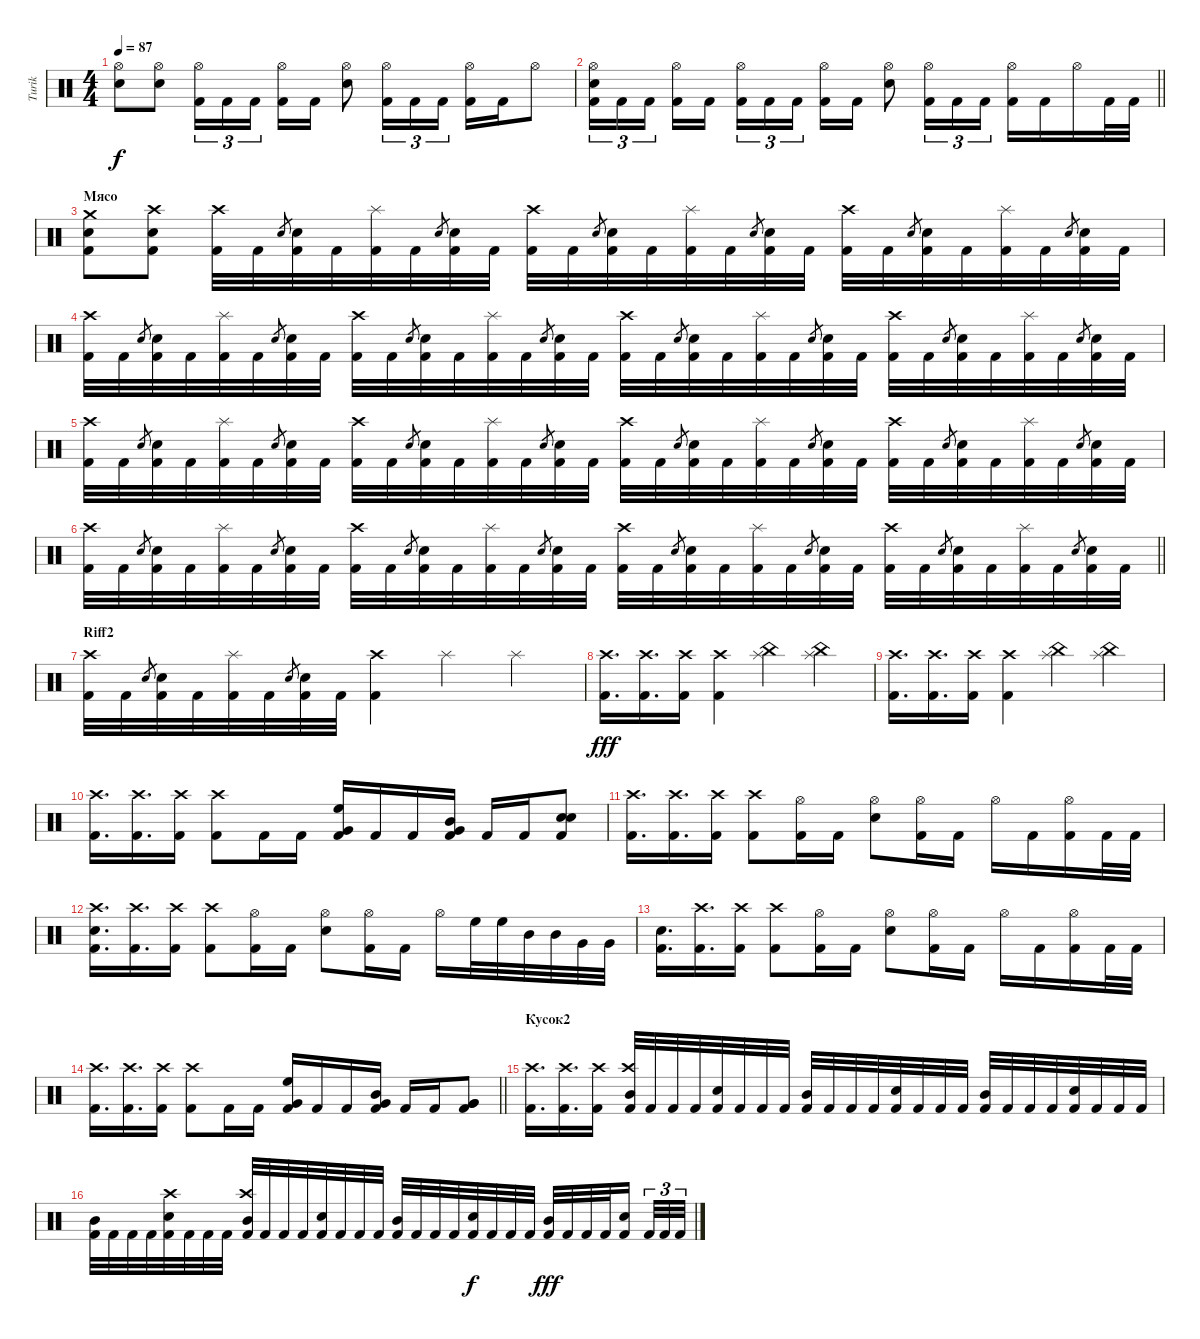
\track ("Turik" "Turik") {instrument percussion}
\staff {score}
\articulation defaults
\ts (4 4)
\tempo 87
\clef neutral
\ks c
("Hi-Hat (open)" "Snare (hit) 2").8{dy f} ("Hi-Hat (open)" "Snare (hit) 2").8 ("Hi-Hat (open)" "Kick (hit) 2").16{tu (3 2)} "Kick (hit) 2".16{tu (3 2)} "Kick (hit) 2".16{tu (3 2) beam splitsecondary} ("Hi-Hat (open)" "Kick (hit) 2").16 "Kick (hit) 2".16 ("Hi-Hat (open)" "Snare (hit) 2").8 ("Hi-Hat (open)" "Kick (hit) 2").16{tu (3 2)} "Kick (hit) 2".16{tu (3 2)} "Kick (hit) 2".16{tu (3 2)} ("Hi-Hat (open)" "Kick (hit) 2").16 "Kick (hit) 2".16 "Hi-Hat (open)".8 |
\barLineRight lightlight
("Hi-Hat (open)" "Snare (hit) 2" "Kick (hit) 2").16{tu (3 2)} "Kick (hit) 2".16{tu (3 2)} "Kick (hit) 2".16{tu (3 2) beam splitsecondary} ("Hi-Hat (open)" "Kick (hit) 2").16 "Kick (hit) 2".16 ("Hi-Hat (open)" "Kick (hit) 2").16{tu (3 2)} "Kick (hit) 2".16{tu (3 2)} "Kick (hit) 2".16{tu (3 2) beam splitsecondary} ("Hi-Hat (open)" "Kick (hit) 2").16 "Kick (hit) 2".16 ("Hi-Hat (open)" "Snare (hit) 2").8 ("Hi-Hat (open)" "Kick (hit) 2").16{tu (3 2)} "Kick (hit) 2".16{tu (3 2)} "Kick (hit) 2".16{tu (3 2)} ("Hi-Hat (open)" "Kick (hit) 2").16 "Kick (hit) 2".16 "Hi-Hat (open)".16 "Kick (hit) 2".32 "Kick (hit) 2".32 |
\section ("" "Мясо")
("Crash medium (hit)" "Snare (hit) 2" "Kick (hit) 2").8 ("Crash high (hit)" "Snare (hit) 2" "Kick (hit) 2").8 ("Crash high (hit)" "Kick (hit) 2").32 "Kick (hit) 2".32 "Snare (hit) 2".8{gr} ("Snare (hit) 2" "Kick (hit) 2").32 "Kick (hit) 2".32 ("Splash (hit)" "Kick (hit) 2").32 "Kick (hit) 2".32 "Snare (hit) 2".8{gr} ("Snare (hit) 2" "Kick (hit) 2").32 "Kick (hit) 2".32 ("Crash high (hit)" "Kick (hit) 2").32 "Kick (hit) 2".32 "Snare (hit) 2".8{gr} ("Snare (hit) 2" "Kick (hit) 2").32 "Kick (hit) 2".32 ("Splash (hit)" "Kick (hit) 2").32 "Kick (hit) 2".32 "Snare (hit) 2".8{gr} ("Snare (hit) 2" "Kick (hit) 2").32 "Kick (hit) 2".32 ("Crash high (hit)" "Kick (hit) 2").32 "Kick (hit) 2".32 "Snare (hit) 2".8{gr} ("Snare (hit) 2" "Kick (hit) 2").32 "Kick (hit) 2".32 ("Splash (hit)" "Kick (hit) 2").32 "Kick (hit) 2".32 "Snare (hit) 2".8{gr} ("Snare (hit) 2" "Kick (hit) 2").32 "Kick (hit) 2".32 |
("Crash high (hit)" "Kick (hit) 2").32 "Kick (hit) 2".32 "Snare (hit) 2".8{gr} ("Snare (hit) 2" "Kick (hit) 2").32 "Kick (hit) 2".32 ("Splash (hit)" "Kick (hit) 2").32 "Kick (hit) 2".32 "Snare (hit) 2".8{gr} ("Snare (hit) 2" "Kick (hit) 2").32 "Kick (hit) 2".32 ("Crash high (hit)" "Kick (hit) 2").32 "Kick (hit) 2".32 "Snare (hit) 2".8{gr} ("Snare (hit) 2" "Kick (hit) 2").32 "Kick (hit) 2".32 ("Splash (hit)" "Kick (hit) 2").32 "Kick (hit) 2".32 "Snare (hit) 2".8{gr} ("Snare (hit) 2" "Kick (hit) 2").32 "Kick (hit) 2".32 ("Crash high (hit)" "Kick (hit) 2").32 "Kick (hit) 2".32 "Snare (hit) 2".8{gr} ("Snare (hit) 2" "Kick (hit) 2").32 "Kick (hit) 2".32 ("Splash (hit)" "Kick (hit) 2").32 "Kick (hit) 2".32 "Snare (hit) 2".8{gr} ("Snare (hit) 2" "Kick (hit) 2").32 "Kick (hit) 2".32 ("Crash high (hit)" "Kick (hit) 2").32 "Kick (hit) 2".32 "Snare (hit) 2".8{gr} ("Snare (hit) 2" "Kick (hit) 2").32 "Kick (hit) 2".32 ("Splash (hit)" "Kick (hit) 2").32 "Kick (hit) 2".32 "Snare (hit) 2".8{gr} ("Snare (hit) 2" "Kick (hit) 2").32 "Kick (hit) 2".32 |
("Crash high (hit)" "Kick (hit) 2").32 "Kick (hit) 2".32 "Snare (hit) 2".8{gr} ("Snare (hit) 2" "Kick (hit) 2").32 "Kick (hit) 2".32 ("Splash (hit)" "Kick (hit) 2").32 "Kick (hit) 2".32 "Snare (hit) 2".8{gr} ("Snare (hit) 2" "Kick (hit) 2").32 "Kick (hit) 2".32 ("Crash high (hit)" "Kick (hit) 2").32 "Kick (hit) 2".32 "Snare (hit) 2".8{gr} ("Snare (hit) 2" "Kick (hit) 2").32 "Kick (hit) 2".32 ("Splash (hit)" "Kick (hit) 2").32 "Kick (hit) 2".32 "Snare (hit) 2".8{gr} ("Snare (hit) 2" "Kick (hit) 2").32 "Kick (hit) 2".32 ("Crash high (hit)" "Kick (hit) 2").32 "Kick (hit) 2".32 "Snare (hit) 2".8{gr} ("Snare (hit) 2" "Kick (hit) 2").32 "Kick (hit) 2".32 ("Splash (hit)" "Kick (hit) 2").32 "Kick (hit) 2".32 "Snare (hit) 2".8{gr} ("Snare (hit) 2" "Kick (hit) 2").32 "Kick (hit) 2".32 ("Crash high (hit)" "Kick (hit) 2").32 "Kick (hit) 2".32 "Snare (hit) 2".8{gr} ("Snare (hit) 2" "Kick (hit) 2").32 "Kick (hit) 2".32 ("Splash (hit)" "Kick (hit) 2").32 "Kick (hit) 2".32 "Snare (hit) 2".8{gr} ("Snare (hit) 2" "Kick (hit) 2").32 "Kick (hit) 2".32 |
\barLineRight lightlight
("Crash high (hit)" "Kick (hit) 2").32 "Kick (hit) 2".32 "Snare (hit) 2".8{gr} ("Snare (hit) 2" "Kick (hit) 2").32 "Kick (hit) 2".32 ("Splash (hit)" "Kick (hit) 2").32 "Kick (hit) 2".32 "Snare (hit) 2".8{gr} ("Snare (hit) 2" "Kick (hit) 2").32 "Kick (hit) 2".32 ("Crash high (hit)" "Kick (hit) 2").32 "Kick (hit) 2".32 "Snare (hit) 2".8{gr} ("Snare (hit) 2" "Kick (hit) 2").32 "Kick (hit) 2".32 ("Splash (hit)" "Kick (hit) 2").32 "Kick (hit) 2".32 "Snare (hit) 2".8{gr} ("Snare (hit) 2" "Kick (hit) 2").32 "Kick (hit) 2".32 ("Crash high (hit)" "Kick (hit) 2").32 "Kick (hit) 2".32 "Snare (hit) 2".8{gr} ("Snare (hit) 2" "Kick (hit) 2").32 "Kick (hit) 2".32 ("Splash (hit)" "Kick (hit) 2").32 "Kick (hit) 2".32 "Snare (hit) 2".8{gr} ("Snare (hit) 2" "Kick (hit) 2").32 "Kick (hit) 2".32 ("Crash high (hit)" "Kick (hit) 2").32 "Kick (hit) 2".32 "Snare (hit) 2".8{gr} ("Snare (hit) 2" "Kick (hit) 2").32 "Kick (hit) 2".32 ("Splash (hit)" "Kick (hit) 2").32 "Kick (hit) 2".32 "Snare (hit) 2".8{gr} ("Snare (hit) 2" "Kick (hit) 2").32 "Kick (hit) 2".32 |
\section ("" "Riff2")
("Crash high (hit)" "Kick (hit) 2").32 "Kick (hit) 2".32 "Snare (hit) 2".8{gr} ("Snare (hit) 2" "Kick (hit) 2").32 "Kick (hit) 2".32 ("Splash (hit)" "Kick (hit) 2").32 "Kick (hit) 2".32 "Snare (hit) 2".8{gr} ("Snare (hit) 2" "Kick (hit) 2").32 "Kick (hit) 2".32 ("Crash high (hit)" "Kick (hit) 2").4 "Splash (hit)".4 "Splash (hit)".4 |
("Crash high (hit)" "Kick (hit) 2").16{d dy fff} ("Crash high (hit)" "Kick (hit) 2").16{d} ("Crash high (hit)" "Kick (hit) 2").16 ("Crash high (hit)" "Kick (hit) 2").4 ("Splash (hit)" "China (hit)").4 ("Splash (hit)" "China (hit)").4 |
("Crash high (hit)" "Kick (hit) 2").16{d} ("Crash high (hit)" "Kick (hit) 2").16{d} ("Crash high (hit)" "Kick (hit) 2").16 ("Crash high (hit)" "Kick (hit) 2").4 ("Splash (hit)" "China (hit)").4 ("Splash (hit)" "China (hit)").4 |
("Crash high (hit)" "Kick (hit) 2").16{d} ("Crash high (hit)" "Kick (hit) 2").16{d} ("Crash high (hit)" "Kick (hit) 2").16 ("Crash high (hit)" "Kick (hit) 2").8 "Kick (hit) 2".16 "Kick (hit) 2".16 ("High Floor Tom (hit)" "Very Low Tom (hit)" "Kick (hit) 2").16 "Kick (hit) 2".16 "Kick (hit) 2".16 ("Mid Tom (hit)" "Very Low Tom (hit)" "Kick (hit) 2").16 "Kick (hit) 2".16 "Kick (hit) 2".16 ("Snare (hit) 2" "Snare (hit) 2" "Kick (hit) 2").8 |
("Crash high (hit)" "Kick (hit) 2").16{d} ("Crash high (hit)" "Kick (hit) 2").16{d} ("Crash high (hit)" "Kick (hit) 2").16 ("Crash high (hit)" "Kick (hit) 2").8 ("Hi-Hat (open)" "Kick (hit) 2").16 "Kick (hit) 2".16 ("Hi-Hat (open)" "Snare (hit) 2").8 ("Hi-Hat (open)" "Kick (hit) 2").16 "Kick (hit) 2".16 "Hi-Hat (open)".16 "Kick (hit) 2".16 ("Hi-Hat (open)" "Kick (hit) 2").16 "Kick (hit) 2".32 "Kick (hit) 2".32 |
("Crash high (hit)" "Snare (hit) 2" "Kick (hit) 2").16{d} ("Crash high (hit)" "Kick (hit) 2").16{d} ("Crash high (hit)" "Kick (hit) 2").16 ("Crash high (hit)" "Kick (hit) 2").8 ("Hi-Hat (open)" "Kick (hit) 2").16 "Kick (hit) 2".16 ("Hi-Hat (open)" "Snare (hit) 2").8 ("Hi-Hat (open)" "Kick (hit) 2").16 "Kick (hit) 2".16 "Hi-Hat (open)".16 "High Floor Tom (hit)".32 "High Floor Tom (hit)".32 "Mid Tom (hit)".32 "Mid Tom (hit)".32 "Very Low Tom (hit)".32 "Very Low Tom (hit)".32 |
("Snare (hit) 2" "Kick (hit) 2").16{d} ("Crash high (hit)" "Kick (hit) 2").16{d} ("Crash high (hit)" "Kick (hit) 2").16 ("Crash high (hit)" "Kick (hit) 2").8 ("Hi-Hat (open)" "Kick (hit) 2").16 "Kick (hit) 2".16 ("Hi-Hat (open)" "Snare (hit) 2").8 ("Hi-Hat (open)" "Kick (hit) 2").16 "Kick (hit) 2".16 "Hi-Hat (open)".16 "Kick (hit) 2".16 ("Hi-Hat (open)" "Kick (hit) 2").16 "Kick (hit) 2".32 "Kick (hit) 2".32 |
\barLineRight lightlight
("Crash high (hit)" "Kick (hit) 2").16{d} ("Crash high (hit)" "Kick (hit) 2").16{d} ("Crash high (hit)" "Kick (hit) 2").16 ("Crash high (hit)" "Kick (hit) 2").8 "Kick (hit) 2".16 "Kick (hit) 2".16 ("High Floor Tom (hit)" "Very Low Tom (hit)" "Kick (hit) 2").16 "Kick (hit) 2".16 "Kick (hit) 2".16 ("Mid Tom (hit)" "Very Low Tom (hit)" "Kick (hit) 2").16 "Kick (hit) 2".16 "Kick (hit) 2".16 ("Very Low Tom (hit)" "Very Low Tom (hit)" "Kick (hit) 2").8 |
\section ("" "Кусок2")
("Crash high (hit)" "Kick (hit) 2").16{d} ("Crash high (hit)" "Kick (hit) 2").16{d} ("Crash high (hit)" "Kick (hit) 2").16 ("Crash high (hit)" "Mid Tom (hit)" "Kick (hit) 2").32 "Kick (hit) 2".32 "Kick (hit) 2".32 "Kick (hit) 2".32 ("Snare (hit) 2" "Kick (hit) 2").32 "Kick (hit) 2".32 "Kick (hit) 2".32 "Kick (hit) 2".32 ("Mid Tom (hit)" "Kick (hit) 2").32 "Kick (hit) 2".32 "Kick (hit) 2".32 "Kick (hit) 2".32 ("Snare (hit) 2" "Kick (hit) 2").32 "Kick (hit) 2".32 "Kick (hit) 2".32 "Kick (hit) 2".32 ("Mid Tom (hit)" "Kick (hit) 2").32 "Kick (hit) 2".32 "Kick (hit) 2".32 "Kick (hit) 2".32 ("Snare (hit) 2" "Kick (hit) 2").32 "Kick (hit) 2".32 "Kick (hit) 2".32 "Kick (hit) 2".32 |
("Mid Tom (hit)" "Kick (hit) 2").32 "Kick (hit) 2".32 "Kick (hit) 2".32 "Kick (hit) 2".32 ("Crash high (hit)" "Snare (hit) 2" "Kick (hit) 2").32 "Kick (hit) 2".32 "Kick (hit) 2".32 "Kick (hit) 2".32 ("Crash high (hit)" "Mid Tom (hit)" "Kick (hit) 2").32 "Kick (hit) 2".32 "Kick (hit) 2".32 "Kick (hit) 2".32 ("Snare (hit) 2" "Kick (hit) 2").32 "Kick (hit) 2".32 "Kick (hit) 2".32 "Kick (hit) 2".32 ("Mid Tom (hit)" "Kick (hit) 2").32 "Kick (hit) 2".32 "Kick (hit) 2".32 "Kick (hit) 2".32 ("Snare (hit) 2" "Kick (hit) 2").32{dy f} "Kick (hit) 2".32 "Kick (hit) 2".32 "Kick (hit) 2".32 ("Mid Tom (hit)" "Kick (hit) 2").32{dy fff} "Kick (hit) 2".32 "Kick (hit) 2".32 "Kick (hit) 2".32 ("Snare (hit) 2" "Kick (hit) 2").16{beam splitsecondary} "Kick (hit) 2".32{tu (3 2)} "Kick (hit) 2".32{tu (3 2)} "Kick (hit) 2".32{tu (3 2)}
